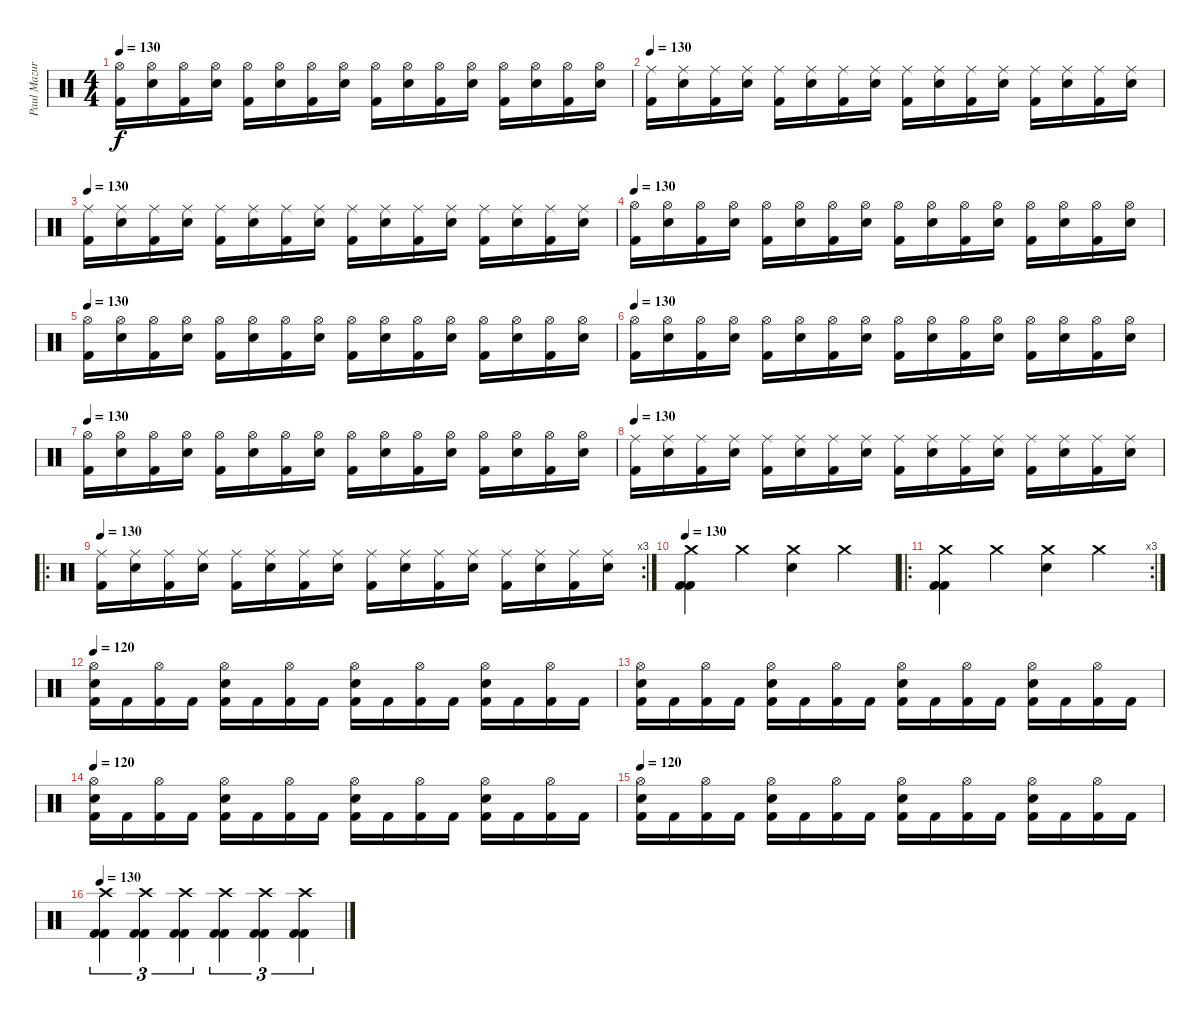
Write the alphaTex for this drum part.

\track ("Paul Mazurkiewicz" "Paul Mazur") {instrument percussion}
\staff {score}
\articulation defaults
\ts (4 4)
\tempo 130
\clef neutral
\ks c
("Hi-Hat (open)" "Kick (hit) 2").16{dy f} ("Hi-Hat (open)" "Snare (hit) 2").16 ("Hi-Hat (open)" "Kick (hit) 2").16 ("Hi-Hat (open)" "Snare (hit) 2").16 ("Hi-Hat (open)" "Kick (hit) 2").16 ("Hi-Hat (open)" "Snare (hit) 2").16 ("Hi-Hat (open)" "Kick (hit) 2").16 ("Hi-Hat (open)" "Snare (hit) 2").16 ("Hi-Hat (open)" "Kick (hit) 2").16 ("Hi-Hat (open)" "Snare (hit) 2").16 ("Hi-Hat (open)" "Kick (hit) 2").16 ("Hi-Hat (open)" "Snare (hit) 2").16 ("Hi-Hat (open)" "Kick (hit) 2").16 ("Hi-Hat (open)" "Snare (hit) 2").16 ("Hi-Hat (open)" "Kick (hit) 2").16 ("Hi-Hat (open)" "Snare (hit) 2").16 |
\tempo 130
("Ride (middle)" "Kick (hit) 2").16 ("Ride (middle)" "Snare (hit) 2").16 ("Ride (middle)" "Kick (hit) 2").16 ("Ride (middle)" "Snare (hit) 2").16 ("Ride (middle)" "Kick (hit) 2").16 ("Ride (middle)" "Snare (hit) 2").16 ("Ride (middle)" "Kick (hit) 2").16 ("Ride (middle)" "Snare (hit) 2").16 ("Ride (middle)" "Kick (hit) 2").16 ("Ride (middle)" "Snare (hit) 2").16 ("Ride (middle)" "Kick (hit) 2").16 ("Ride (middle)" "Snare (hit) 2").16 ("Ride (middle)" "Kick (hit) 2").16 ("Ride (middle)" "Snare (hit) 2").16 ("Ride (middle)" "Kick (hit) 2").16 ("Ride (middle)" "Snare (hit) 2").16 |
\tempo 130
("Ride (middle)" "Kick (hit) 2").16 ("Ride (middle)" "Snare (hit) 2").16 ("Ride (middle)" "Kick (hit) 2").16 ("Ride (middle)" "Snare (hit) 2").16 ("Ride (middle)" "Kick (hit) 2").16 ("Ride (middle)" "Snare (hit) 2").16 ("Ride (middle)" "Kick (hit) 2").16 ("Ride (middle)" "Snare (hit) 2").16 ("Ride (middle)" "Kick (hit) 2").16 ("Ride (middle)" "Snare (hit) 2").16 ("Ride (middle)" "Kick (hit) 2").16 ("Ride (middle)" "Snare (hit) 2").16 ("Ride (middle)" "Kick (hit) 2").16 ("Ride (middle)" "Snare (hit) 2").16 ("Ride (middle)" "Kick (hit) 2").16 ("Ride (middle)" "Snare (hit) 2").16 |
\tempo 130
("Hi-Hat (open)" "Kick (hit) 2").16 ("Hi-Hat (open)" "Snare (hit) 2").16 ("Hi-Hat (open)" "Kick (hit) 2").16 ("Hi-Hat (open)" "Snare (hit) 2").16 ("Hi-Hat (open)" "Kick (hit) 2").16 ("Hi-Hat (open)" "Snare (hit) 2").16 ("Hi-Hat (open)" "Kick (hit) 2").16 ("Hi-Hat (open)" "Snare (hit) 2").16 ("Hi-Hat (open)" "Kick (hit) 2").16 ("Hi-Hat (open)" "Snare (hit) 2").16 ("Hi-Hat (open)" "Kick (hit) 2").16 ("Hi-Hat (open)" "Snare (hit) 2").16 ("Hi-Hat (open)" "Kick (hit) 2").16 ("Hi-Hat (open)" "Snare (hit) 2").16 ("Hi-Hat (open)" "Kick (hit) 2").16 ("Hi-Hat (open)" "Snare (hit) 2").16 |
\tempo 130
("Hi-Hat (open)" "Kick (hit) 2").16 ("Hi-Hat (open)" "Snare (hit) 2").16 ("Hi-Hat (open)" "Kick (hit) 2").16 ("Hi-Hat (open)" "Snare (hit) 2").16 ("Hi-Hat (open)" "Kick (hit) 2").16 ("Hi-Hat (open)" "Snare (hit) 2").16 ("Hi-Hat (open)" "Kick (hit) 2").16 ("Hi-Hat (open)" "Snare (hit) 2").16 ("Hi-Hat (open)" "Kick (hit) 2").16 ("Hi-Hat (open)" "Snare (hit) 2").16 ("Hi-Hat (open)" "Kick (hit) 2").16 ("Hi-Hat (open)" "Snare (hit) 2").16 ("Hi-Hat (open)" "Kick (hit) 2").16 ("Hi-Hat (open)" "Snare (hit) 2").16 ("Hi-Hat (open)" "Kick (hit) 2").16 ("Hi-Hat (open)" "Snare (hit) 2").16 |
\tempo 130
("Hi-Hat (open)" "Kick (hit) 2").16 ("Hi-Hat (open)" "Snare (hit) 2").16 ("Hi-Hat (open)" "Kick (hit) 2").16 ("Hi-Hat (open)" "Snare (hit) 2").16 ("Hi-Hat (open)" "Kick (hit) 2").16 ("Hi-Hat (open)" "Snare (hit) 2").16 ("Hi-Hat (open)" "Kick (hit) 2").16 ("Hi-Hat (open)" "Snare (hit) 2").16 ("Hi-Hat (open)" "Kick (hit) 2").16 ("Hi-Hat (open)" "Snare (hit) 2").16 ("Hi-Hat (open)" "Kick (hit) 2").16 ("Hi-Hat (open)" "Snare (hit) 2").16 ("Hi-Hat (open)" "Kick (hit) 2").16 ("Hi-Hat (open)" "Snare (hit) 2").16 ("Hi-Hat (open)" "Kick (hit) 2").16 ("Hi-Hat (open)" "Snare (hit) 2").16 |
\tempo 130
("Hi-Hat (open)" "Kick (hit) 2").16 ("Hi-Hat (open)" "Snare (hit) 2").16 ("Hi-Hat (open)" "Kick (hit) 2").16 ("Hi-Hat (open)" "Snare (hit) 2").16 ("Hi-Hat (open)" "Kick (hit) 2").16 ("Hi-Hat (open)" "Snare (hit) 2").16 ("Hi-Hat (open)" "Kick (hit) 2").16 ("Hi-Hat (open)" "Snare (hit) 2").16 ("Hi-Hat (open)" "Kick (hit) 2").16 ("Hi-Hat (open)" "Snare (hit) 2").16 ("Hi-Hat (open)" "Kick (hit) 2").16 ("Hi-Hat (open)" "Snare (hit) 2").16 ("Hi-Hat (open)" "Kick (hit) 2").16 ("Hi-Hat (open)" "Snare (hit) 2").16 ("Hi-Hat (open)" "Kick (hit) 2").16 ("Hi-Hat (open)" "Snare (hit) 2").16 |
\tempo 130
("Ride (middle)" "Kick (hit) 2").16 ("Ride (middle)" "Snare (hit) 2").16 ("Ride (middle)" "Kick (hit) 2").16 ("Ride (middle)" "Snare (hit) 2").16 ("Ride (middle)" "Kick (hit) 2").16 ("Ride (middle)" "Snare (hit) 2").16 ("Ride (middle)" "Kick (hit) 2").16 ("Ride (middle)" "Snare (hit) 2").16 ("Ride (middle)" "Kick (hit) 2").16 ("Ride (middle)" "Snare (hit) 2").16 ("Ride (middle)" "Kick (hit) 2").16 ("Ride (middle)" "Snare (hit) 2").16 ("Ride (middle)" "Kick (hit) 2").16 ("Ride (middle)" "Snare (hit) 2").16 ("Ride (middle)" "Kick (hit) 2").16 ("Ride (middle)" "Snare (hit) 2").16 |
\ro
\rc 3
\tempo 130
("Ride (middle)" "Kick (hit) 2").16 ("Ride (middle)" "Snare (hit) 2").16 ("Ride (middle)" "Kick (hit) 2").16 ("Ride (middle)" "Snare (hit) 2").16 ("Ride (middle)" "Kick (hit) 2").16 ("Ride (middle)" "Snare (hit) 2").16 ("Ride (middle)" "Kick (hit) 2").16 ("Ride (middle)" "Snare (hit) 2").16 ("Ride (middle)" "Kick (hit) 2").16 ("Ride (middle)" "Snare (hit) 2").16 ("Ride (middle)" "Kick (hit) 2").16 ("Ride (middle)" "Snare (hit) 2").16 ("Ride (middle)" "Kick (hit) 2").16 ("Ride (middle)" "Snare (hit) 2").16 ("Ride (middle)" "Kick (hit) 2").16 ("Ride (middle)" "Snare (hit) 2").16 |
\tempo 130
("Crash medium (hit)" "Kick (hit) 2" "Kick (hit) 2").4 "Crash medium (hit)".4 ("Crash medium (hit)" "Snare (hit) 2").4 "Crash medium (hit)".4 |
\ro
\rc 3
("Crash medium (hit)" "Kick (hit) 2" "Kick (hit) 2").4 "Crash medium (hit)".4 ("Crash medium (hit)" "Snare (hit) 2").4 "Crash medium (hit)".4 |
\tempo 120
("Hi-Hat (open)" "Snare (hit) 2" "Kick (hit) 2").16 "Kick (hit) 2".16 ("Hi-Hat (open)" "Kick (hit) 2").16 "Kick (hit) 2".16 ("Hi-Hat (open)" "Snare (hit) 2" "Kick (hit) 2").16 "Kick (hit) 2".16 ("Hi-Hat (open)" "Kick (hit) 2").16 "Kick (hit) 2".16 ("Hi-Hat (open)" "Snare (hit) 2" "Kick (hit) 2").16 "Kick (hit) 2".16 ("Hi-Hat (open)" "Kick (hit) 2").16 "Kick (hit) 2".16 ("Hi-Hat (open)" "Snare (hit) 2" "Kick (hit) 2").16 "Kick (hit) 2".16 ("Hi-Hat (open)" "Kick (hit) 2").16 "Kick (hit) 2".16 |
("Hi-Hat (open)" "Snare (hit) 2" "Kick (hit) 2").16 "Kick (hit) 2".16 ("Hi-Hat (open)" "Kick (hit) 2").16 "Kick (hit) 2".16 ("Hi-Hat (open)" "Snare (hit) 2" "Kick (hit) 2").16 "Kick (hit) 2".16 ("Hi-Hat (open)" "Kick (hit) 2").16 "Kick (hit) 2".16 ("Hi-Hat (open)" "Snare (hit) 2" "Kick (hit) 2").16 "Kick (hit) 2".16 ("Hi-Hat (open)" "Kick (hit) 2").16 "Kick (hit) 2".16 ("Hi-Hat (open)" "Snare (hit) 2" "Kick (hit) 2").16 "Kick (hit) 2".16 ("Hi-Hat (open)" "Kick (hit) 2").16 "Kick (hit) 2".16 |
\tempo 120
("Hi-Hat (open)" "Snare (hit) 2" "Kick (hit) 2").16 "Kick (hit) 2".16 ("Hi-Hat (open)" "Kick (hit) 2").16 "Kick (hit) 2".16 ("Hi-Hat (open)" "Snare (hit) 2" "Kick (hit) 2").16 "Kick (hit) 2".16 ("Hi-Hat (open)" "Kick (hit) 2").16 "Kick (hit) 2".16 ("Hi-Hat (open)" "Snare (hit) 2" "Kick (hit) 2").16 "Kick (hit) 2".16 ("Hi-Hat (open)" "Kick (hit) 2").16 "Kick (hit) 2".16 ("Hi-Hat (open)" "Snare (hit) 2" "Kick (hit) 2").16 "Kick (hit) 2".16 ("Hi-Hat (open)" "Kick (hit) 2").16 "Kick (hit) 2".16 |
\tempo 120
("Hi-Hat (open)" "Snare (hit) 2" "Kick (hit) 2").16 "Kick (hit) 2".16 ("Hi-Hat (open)" "Kick (hit) 2").16 "Kick (hit) 2".16 ("Hi-Hat (open)" "Snare (hit) 2" "Kick (hit) 2").16 "Kick (hit) 2".16 ("Hi-Hat (open)" "Kick (hit) 2").16 "Kick (hit) 2".16 ("Hi-Hat (open)" "Snare (hit) 2" "Kick (hit) 2").16 "Kick (hit) 2".16 ("Hi-Hat (open)" "Kick (hit) 2").16 "Kick (hit) 2".16 ("Hi-Hat (open)" "Snare (hit) 2" "Kick (hit) 2").16 "Kick (hit) 2".16 ("Hi-Hat (open)" "Kick (hit) 2").16 "Kick (hit) 2".16 |
\tempo 130
("Crash high (hit)" "Kick (hit) 2" "Kick (hit) 2").4{tu (3 2)} ("Crash high (hit)" "Kick (hit) 2" "Kick (hit) 2").4{tu (3 2)} ("Crash high (hit)" "Kick (hit) 2" "Kick (hit) 2").4{tu (3 2)} ("Crash high (hit)" "Kick (hit) 2" "Kick (hit) 2").4{tu (3 2)} ("Crash high (hit)" "Kick (hit) 2" "Kick (hit) 2").4{tu (3 2)} ("Crash high (hit)" "Kick (hit) 2" "Kick (hit) 2").4{tu (3 2)}
